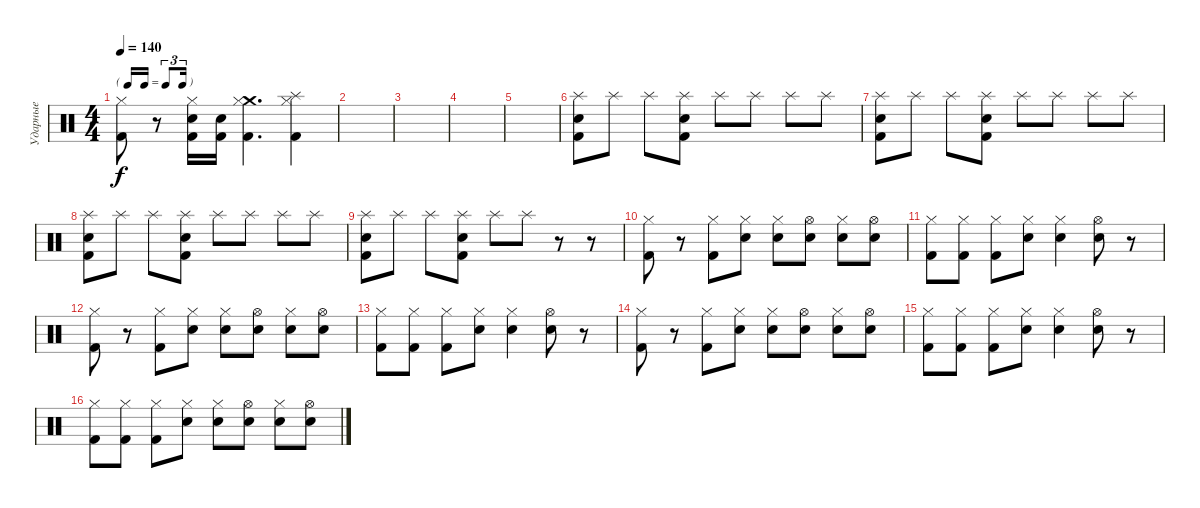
\track ("Ударные" "Ударные") {instrument percussion}
\staff {score}
\articulation defaults
\ts (4 4)
\tf triplet16th
\tempo 140
\clef neutral
\ks c
("Hi-Hat (closed)" "Kick (hit) 2").8{dy f} r.8 ("Snare (hit) 2" "Hi-Hat (closed)" "Kick (hit) 2").16 ("Snare (hit) 2" "Kick (hit) 2").16 ("Crash medium (hit)" "Hi-Hat (closed)" "Kick (hit) 2").4{d} ("Splash (hit)" "Hi-Hat (closed)" "Kick (hit) 2").4 |
|
|
|
|
("Splash (hit)" "Snare (hit) 2" "Kick (hit) 2").8 "Splash (hit)".8 "Splash (hit)".8 ("Splash (hit)" "Snare (hit) 2" "Kick (hit) 2").8 "Splash (hit)".8 "Splash (hit)".8 "Splash (hit)".8 "Splash (hit)".8 |
("Splash (hit)" "Snare (hit) 2" "Kick (hit) 2").8 "Splash (hit)".8 "Splash (hit)".8 ("Splash (hit)" "Snare (hit) 2" "Kick (hit) 2").8 "Splash (hit)".8 "Splash (hit)".8 "Splash (hit)".8 "Splash (hit)".8 |
("Splash (hit)" "Snare (hit) 2" "Kick (hit) 2").8 "Splash (hit)".8 "Splash (hit)".8 ("Splash (hit)" "Snare (hit) 2" "Kick (hit) 2").8 "Splash (hit)".8 "Splash (hit)".8 "Splash (hit)".8 "Splash (hit)".8 |
("Splash (hit)" "Snare (hit) 2" "Kick (hit) 2").8 "Splash (hit)".8 "Splash (hit)".8 ("Splash (hit)" "Snare (hit) 2" "Kick (hit) 2").8 "Splash (hit)".8 "Splash (hit)".8 r.8 r.8 |
("Hi-Hat (closed)" "Kick (hit) 2").8 r.8 ("Hi-Hat (closed)" "Kick (hit) 2").8 ("Hi-Hat (closed)" "Snare (hit) 2").8 ("Hi-Hat (closed)" "Snare (hit) 2").8 ("Hi-Hat (open)" "Snare (hit) 2").8 ("Hi-Hat (closed)" "Snare (hit) 2").8 ("Hi-Hat (open)" "Snare (hit) 2").8 |
("Hi-Hat (closed)" "Kick (hit) 2").8 ("Hi-Hat (closed)" "Kick (hit) 2").8 ("Hi-Hat (closed)" "Kick (hit) 2").8 ("Hi-Hat (closed)" "Snare (hit) 2").8 ("Hi-Hat (closed)" "Snare (hit) 2").4 ("Hi-Hat (open)" "Snare (hit) 2").8 r.8 |
("Hi-Hat (closed)" "Kick (hit) 2").8 r.8 ("Hi-Hat (closed)" "Kick (hit) 2").8 ("Hi-Hat (closed)" "Snare (hit) 2").8 ("Hi-Hat (closed)" "Snare (hit) 2").8 ("Hi-Hat (open)" "Snare (hit) 2").8 ("Hi-Hat (closed)" "Snare (hit) 2").8 ("Hi-Hat (open)" "Snare (hit) 2").8 |
("Hi-Hat (closed)" "Kick (hit) 2").8 ("Hi-Hat (closed)" "Kick (hit) 2").8 ("Hi-Hat (closed)" "Kick (hit) 2").8 ("Hi-Hat (closed)" "Snare (hit) 2").8 ("Hi-Hat (closed)" "Snare (hit) 2").4 ("Hi-Hat (open)" "Snare (hit) 2").8 r.8 |
("Hi-Hat (closed)" "Kick (hit) 2").8 r.8 ("Hi-Hat (closed)" "Kick (hit) 2").8 ("Hi-Hat (closed)" "Snare (hit) 2").8 ("Hi-Hat (closed)" "Snare (hit) 2").8 ("Hi-Hat (open)" "Snare (hit) 2").8 ("Hi-Hat (closed)" "Snare (hit) 2").8 ("Hi-Hat (open)" "Snare (hit) 2").8 |
("Hi-Hat (closed)" "Kick (hit) 2").8 ("Hi-Hat (closed)" "Kick (hit) 2").8 ("Hi-Hat (closed)" "Kick (hit) 2").8 ("Hi-Hat (closed)" "Snare (hit) 2").8 ("Hi-Hat (closed)" "Snare (hit) 2").4 ("Hi-Hat (open)" "Snare (hit) 2").8 r.8 |
("Hi-Hat (closed)" "Kick (hit) 2").8 ("Hi-Hat (closed)" "Kick (hit) 2").8 ("Hi-Hat (closed)" "Kick (hit) 2").8 ("Hi-Hat (closed)" "Snare (hit) 2").8 ("Hi-Hat (closed)" "Snare (hit) 2").8 ("Hi-Hat (open)" "Snare (hit) 2").8 ("Hi-Hat (closed)" "Snare (hit) 2").8 ("Hi-Hat (open)" "Snare (hit) 2").8
